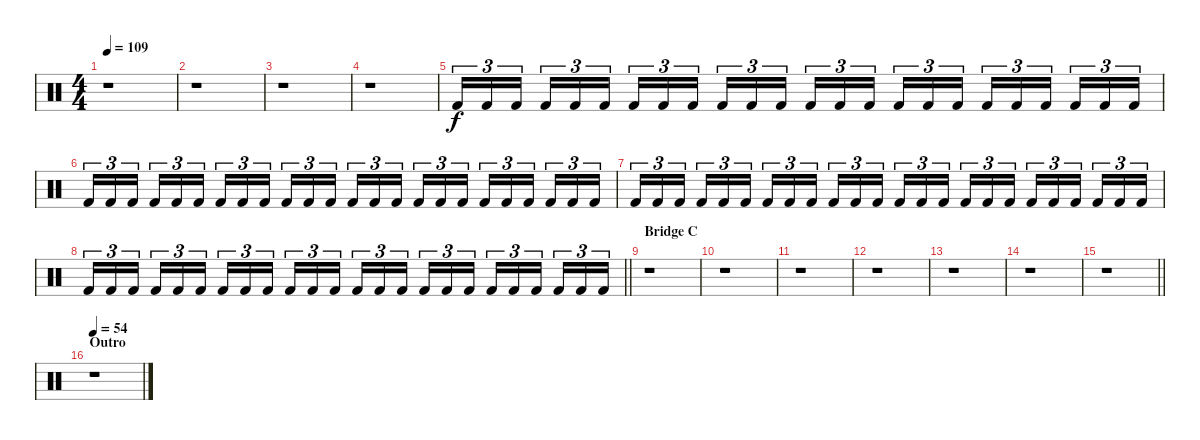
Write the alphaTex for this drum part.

\track "" {instrument percussion}
\staff {score}
\articulation defaults
\ts (4 4)
\tempo 109
\clef neutral
\ks c
r.1{dy f} |
r.1 |
r.1 |
r.1 |
"Kick (hit) 2".16{tu (3 2)} "Kick (hit) 2".16{tu (3 2)} "Kick (hit) 2".16{tu (3 2) beam splitsecondary} "Kick (hit) 2".16{tu (3 2)} "Kick (hit) 2".16{tu (3 2)} "Kick (hit) 2".16{tu (3 2)} "Kick (hit) 2".16{tu (3 2)} "Kick (hit) 2".16{tu (3 2)} "Kick (hit) 2".16{tu (3 2) beam splitsecondary} "Kick (hit) 2".16{tu (3 2)} "Kick (hit) 2".16{tu (3 2)} "Kick (hit) 2".16{tu (3 2)} "Kick (hit) 2".16{tu (3 2)} "Kick (hit) 2".16{tu (3 2)} "Kick (hit) 2".16{tu (3 2) beam splitsecondary} "Kick (hit) 2".16{tu (3 2)} "Kick (hit) 2".16{tu (3 2)} "Kick (hit) 2".16{tu (3 2)} "Kick (hit) 2".16{tu (3 2)} "Kick (hit) 2".16{tu (3 2)} "Kick (hit) 2".16{tu (3 2) beam splitsecondary} "Kick (hit) 2".16{tu (3 2)} "Kick (hit) 2".16{tu (3 2)} "Kick (hit) 2".16{tu (3 2)} |
"Kick (hit) 2".16{tu (3 2)} "Kick (hit) 2".16{tu (3 2)} "Kick (hit) 2".16{tu (3 2) beam splitsecondary} "Kick (hit) 2".16{tu (3 2)} "Kick (hit) 2".16{tu (3 2)} "Kick (hit) 2".16{tu (3 2)} "Kick (hit) 2".16{tu (3 2)} "Kick (hit) 2".16{tu (3 2)} "Kick (hit) 2".16{tu (3 2) beam splitsecondary} "Kick (hit) 2".16{tu (3 2)} "Kick (hit) 2".16{tu (3 2)} "Kick (hit) 2".16{tu (3 2)} "Kick (hit) 2".16{tu (3 2)} "Kick (hit) 2".16{tu (3 2)} "Kick (hit) 2".16{tu (3 2) beam splitsecondary} "Kick (hit) 2".16{tu (3 2)} "Kick (hit) 2".16{tu (3 2)} "Kick (hit) 2".16{tu (3 2)} "Kick (hit) 2".16{tu (3 2)} "Kick (hit) 2".16{tu (3 2)} "Kick (hit) 2".16{tu (3 2) beam splitsecondary} "Kick (hit) 2".16{tu (3 2)} "Kick (hit) 2".16{tu (3 2)} "Kick (hit) 2".16{tu (3 2)} |
"Kick (hit) 2".16{tu (3 2)} "Kick (hit) 2".16{tu (3 2)} "Kick (hit) 2".16{tu (3 2) beam splitsecondary} "Kick (hit) 2".16{tu (3 2)} "Kick (hit) 2".16{tu (3 2)} "Kick (hit) 2".16{tu (3 2)} "Kick (hit) 2".16{tu (3 2)} "Kick (hit) 2".16{tu (3 2)} "Kick (hit) 2".16{tu (3 2) beam splitsecondary} "Kick (hit) 2".16{tu (3 2)} "Kick (hit) 2".16{tu (3 2)} "Kick (hit) 2".16{tu (3 2)} "Kick (hit) 2".16{tu (3 2)} "Kick (hit) 2".16{tu (3 2)} "Kick (hit) 2".16{tu (3 2) beam splitsecondary} "Kick (hit) 2".16{tu (3 2)} "Kick (hit) 2".16{tu (3 2)} "Kick (hit) 2".16{tu (3 2)} "Kick (hit) 2".16{tu (3 2)} "Kick (hit) 2".16{tu (3 2)} "Kick (hit) 2".16{tu (3 2) beam splitsecondary} "Kick (hit) 2".16{tu (3 2)} "Kick (hit) 2".16{tu (3 2)} "Kick (hit) 2".16{tu (3 2)} |
\barLineRight lightlight "Kick (hit) 2".16{tu (3 2)} "Kick (hit) 2".16{tu (3 2)} "Kick (hit) 2".16{tu (3 2) beam splitsecondary} "Kick (hit) 2".16{tu (3 2)} "Kick (hit) 2".16{tu (3 2)} "Kick (hit) 2".16{tu (3 2)} "Kick (hit) 2".16{tu (3 2)} "Kick (hit) 2".16{tu (3 2)} "Kick (hit) 2".16{tu (3 2) beam splitsecondary} "Kick (hit) 2".16{tu (3 2)} "Kick (hit) 2".16{tu (3 2)} "Kick (hit) 2".16{tu (3 2)} "Kick (hit) 2".16{tu (3 2)} "Kick (hit) 2".16{tu (3 2)} "Kick (hit) 2".16{tu (3 2) beam splitsecondary} "Kick (hit) 2".16{tu (3 2)} "Kick (hit) 2".16{tu (3 2)} "Kick (hit) 2".16{tu (3 2)} "Kick (hit) 2".16{tu (3 2)} "Kick (hit) 2".16{tu (3 2)} "Kick (hit) 2".16{tu (3 2) beam splitsecondary} "Kick (hit) 2".16{tu (3 2)} "Kick (hit) 2".16{tu (3 2)} "Kick (hit) 2".16{tu (3 2)}
|
\section ("" "Bridge C")
r.1 |
r.1 |
r.1 |
r.1 |
r.1 |
r.1 |
\barLineRight lightlight
r.1 |
\section ("" "Outro")
\tempo 54
r.1
